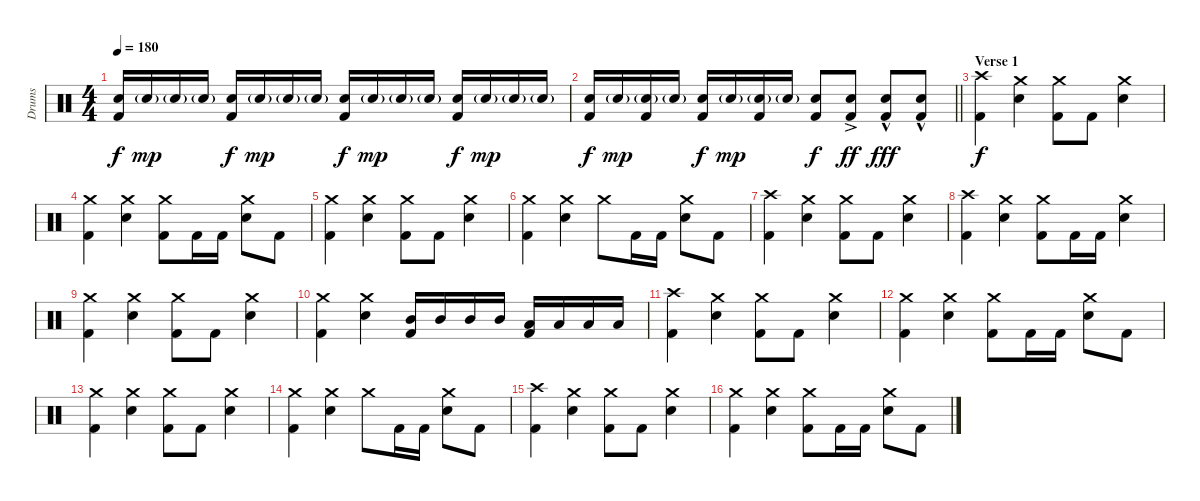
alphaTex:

\track ("Drums" "Drums") {instrument percussion}
\staff {score}
\articulation defaults
\ts (4 4)
\tempo 180
\clef neutral
\ks c
("Snare (hit) 2" "Kick (hit) 2").16{dy f} "Snare (hit) 2"{g}.16{dy mp} "Snare (hit) 2"{g}.16 "Snare (hit) 2"{g}.16 ("Snare (hit) 2" "Kick (hit) 2").16{dy f} "Snare (hit) 2"{g}.16{dy mp} "Snare (hit) 2"{g}.16 "Snare (hit) 2"{g}.16 ("Snare (hit) 2" "Kick (hit) 2").16{dy f} "Snare (hit) 2"{g}.16{dy mp} "Snare (hit) 2"{g}.16 "Snare (hit) 2"{g}.16 ("Snare (hit) 2" "Kick (hit) 2").16{dy f} "Snare (hit) 2"{g}.16{dy mp} "Snare (hit) 2"{g}.16 "Snare (hit) 2"{g}.16 |
\barLineRight lightlight
("Snare (hit) 2" "Kick (hit) 2").16{dy f} "Snare (hit) 2"{g}.16{dy mp} ("Snare (hit) 2"{g} "Kick (hit) 2").16 "Snare (hit) 2"{g}.16 ("Snare (hit) 2" "Kick (hit) 2").16{dy f} "Snare (hit) 2"{g}.16{dy mp} ("Snare (hit) 2"{g} "Kick (hit) 2").16 "Snare (hit) 2"{g}.16 ("Snare (hit) 2" "Kick (hit) 2").8{dy f} ("Snare (hit) 2"{ac} "Kick (hit) 2").8{dy ff} ("Snare (hit) 2"{hac} "Kick (hit) 2").8{dy fff} ("Snare (hit) 2"{hac} "Kick (hit) 2").8 |
\section ("" "Verse 1")
("Crash high (hit)" "Kick (hit) 2").4{dy f} ("Crash medium (hit)" "Snare (hit) 2").4 ("Crash medium (hit)" "Kick (hit) 2").8 "Kick (hit) 2".8 ("Crash medium (hit)" "Snare (hit) 2").4 |
("Crash medium (hit)" "Kick (hit) 2").4 ("Crash medium (hit)" "Snare (hit) 2").4 ("Crash medium (hit)" "Kick (hit) 2").8 "Kick (hit) 2".16 "Kick (hit) 2".16 ("Crash medium (hit)" "Snare (hit) 2").8 "Kick (hit) 2".8 |
("Crash medium (hit)" "Kick (hit) 2").4 ("Crash medium (hit)" "Snare (hit) 2").4 ("Crash medium (hit)" "Kick (hit) 2").8 "Kick (hit) 2".8 ("Crash medium (hit)" "Snare (hit) 2").4 |
("Crash medium (hit)" "Kick (hit) 2").4 ("Crash medium (hit)" "Snare (hit) 2").4 "Crash medium (hit)".8 "Kick (hit) 2".16 "Kick (hit) 2".16 ("Crash medium (hit)" "Snare (hit) 2").8 "Kick (hit) 2".8 |
("Crash high (hit)" "Kick (hit) 2").4 ("Crash medium (hit)" "Snare (hit) 2").4 ("Crash medium (hit)" "Kick (hit) 2").8 "Kick (hit) 2".8 ("Crash medium (hit)" "Snare (hit) 2").4 |
("Crash high (hit)" "Kick (hit) 2").4 ("Crash medium (hit)" "Snare (hit) 2").4 ("Crash medium (hit)" "Kick (hit) 2").8 "Kick (hit) 2".16 "Kick (hit) 2".16 ("Crash medium (hit)" "Snare (hit) 2").4 |
("Crash medium (hit)" "Kick (hit) 2").4 ("Crash medium (hit)" "Snare (hit) 2").4 ("Crash medium (hit)" "Kick (hit) 2").8 "Kick (hit) 2".8 ("Crash medium (hit)" "Snare (hit) 2").4 |
("Crash medium (hit)" "Kick (hit) 2").4 ("Crash medium (hit)" "Snare (hit) 2").4 ("Mid Tom (hit)" "Kick (hit) 2").16 "Mid Tom (hit)".16 "Mid Tom (hit)".16 "Mid Tom (hit)".16 ("Low Tom (hit)" "Kick (hit) 2").16 "Low Tom (hit)".16 "Low Tom (hit)".16 "Low Tom (hit)".16 |
("Crash high (hit)" "Kick (hit) 2").4 ("Crash medium (hit)" "Snare (hit) 2").4 ("Crash medium (hit)" "Kick (hit) 2").8 "Kick (hit) 2".8 ("Crash medium (hit)" "Snare (hit) 2").4 |
("Crash medium (hit)" "Kick (hit) 2").4 ("Crash medium (hit)" "Snare (hit) 2").4 ("Crash medium (hit)" "Kick (hit) 2").8 "Kick (hit) 2".16 "Kick (hit) 2".16 ("Crash medium (hit)" "Snare (hit) 2").8 "Kick (hit) 2".8 |
("Crash medium (hit)" "Kick (hit) 2").4 ("Crash medium (hit)" "Snare (hit) 2").4 ("Crash medium (hit)" "Kick (hit) 2").8 "Kick (hit) 2".8 ("Crash medium (hit)" "Snare (hit) 2").4 |
("Crash medium (hit)" "Kick (hit) 2").4 ("Crash medium (hit)" "Snare (hit) 2").4 "Crash medium (hit)".8 "Kick (hit) 2".16 "Kick (hit) 2".16 ("Crash medium (hit)" "Snare (hit) 2").8 "Kick (hit) 2".8 |
("Crash high (hit)" "Kick (hit) 2").4 ("Crash medium (hit)" "Snare (hit) 2").4 ("Crash medium (hit)" "Kick (hit) 2").8 "Kick (hit) 2".8 ("Crash medium (hit)" "Snare (hit) 2").4 |
("Crash medium (hit)" "Kick (hit) 2").4 ("Crash medium (hit)" "Snare (hit) 2").4 ("Crash medium (hit)" "Kick (hit) 2").8 "Kick (hit) 2".16 "Kick (hit) 2".16 ("Crash medium (hit)" "Snare (hit) 2").8 "Kick (hit) 2".8
